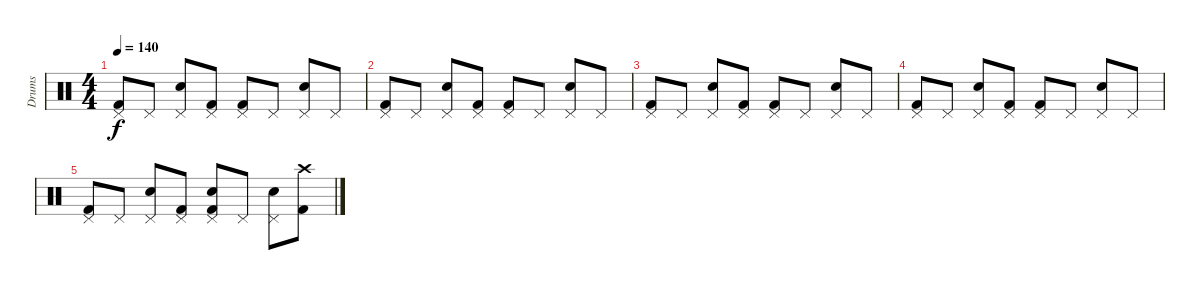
\track ("Drums" "Drums") {instrument percussion}
\staff {score}
\articulation defaults
\ts (4 4)
\tempo 140
\clef neutral
\ks c
("Pedal Hi-Hat (hit)" "Kick (hit) 2").8{dy f} "Pedal Hi-Hat (hit)".8 ("Pedal Hi-Hat (hit)" "Electric Snare (hit)").8 ("Pedal Hi-Hat (hit)" "Kick (hit) 2").8 ("Pedal Hi-Hat (hit)" "Kick (hit) 2").8 "Pedal Hi-Hat (hit)".8 ("Pedal Hi-Hat (hit)" "Electric Snare (hit)").8 "Pedal Hi-Hat (hit)".8 |
("Pedal Hi-Hat (hit)" "Kick (hit) 2").8 "Pedal Hi-Hat (hit)".8 ("Pedal Hi-Hat (hit)" "Electric Snare (hit)").8 ("Pedal Hi-Hat (hit)" "Kick (hit) 2").8 ("Pedal Hi-Hat (hit)" "Kick (hit) 2").8 "Pedal Hi-Hat (hit)".8 ("Pedal Hi-Hat (hit)" "Electric Snare (hit)").8 "Pedal Hi-Hat (hit)".8 |
("Pedal Hi-Hat (hit)" "Kick (hit) 2").8 "Pedal Hi-Hat (hit)".8 ("Pedal Hi-Hat (hit)" "Electric Snare (hit)").8 ("Pedal Hi-Hat (hit)" "Kick (hit) 2").8 ("Pedal Hi-Hat (hit)" "Kick (hit) 2").8 "Pedal Hi-Hat (hit)".8 ("Pedal Hi-Hat (hit)" "Electric Snare (hit)").8 "Pedal Hi-Hat (hit)".8 |
("Pedal Hi-Hat (hit)" "Kick (hit) 2").8 "Pedal Hi-Hat (hit)".8 ("Pedal Hi-Hat (hit)" "Electric Snare (hit)").8 ("Pedal Hi-Hat (hit)" "Kick (hit) 2").8 ("Pedal Hi-Hat (hit)" "Kick (hit) 2").8 "Pedal Hi-Hat (hit)".8 ("Pedal Hi-Hat (hit)" "Electric Snare (hit)").8 "Pedal Hi-Hat (hit)".8 |
("Pedal Hi-Hat (hit)" "Kick (hit) 2").8 "Pedal Hi-Hat (hit)".8 ("Pedal Hi-Hat (hit)" "Electric Snare (hit)").8 ("Pedal Hi-Hat (hit)" "Kick (hit) 2").8 ("Pedal Hi-Hat (hit)" "Electric Snare (hit)" "Kick (hit) 2").8 "Pedal Hi-Hat (hit)".8 ("Pedal Hi-Hat (hit)" "Electric Snare (hit)").8 ("Crash high (hit)" "Kick (hit) 2").8
